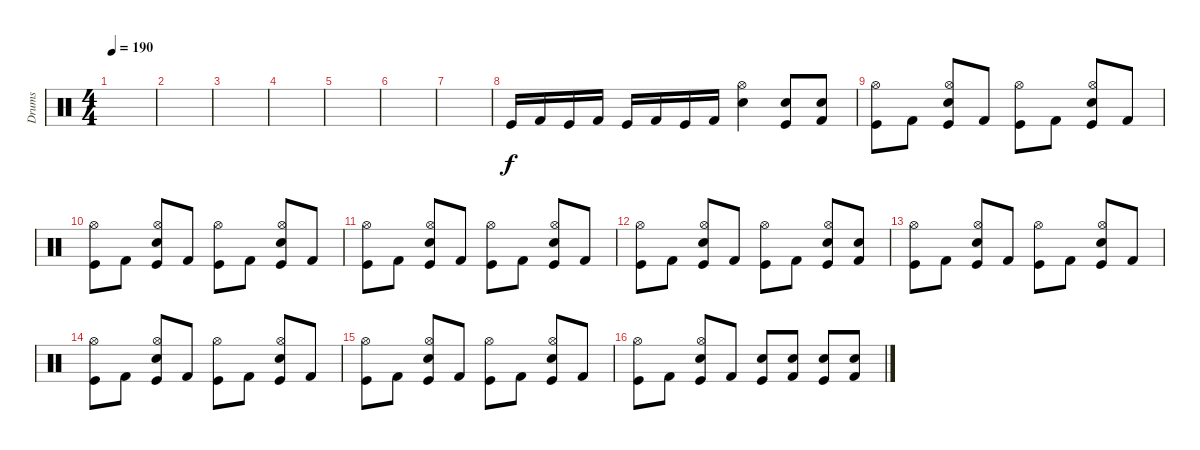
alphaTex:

\track ("Drums" "Drums") {instrument percussion}
\staff {score}
\articulation defaults
\ts (4 4)
\tempo 190
\clef neutral
\ks c
|
|
|
|
|
|
|
"Kick (hit)".16 "Kick (hit) 2".16 "Kick (hit)".16 "Kick (hit) 2".16 "Kick (hit)".16 "Kick (hit) 2".16 "Kick (hit)".16 "Kick (hit) 2".16 ("Hi-Hat (open)" "Snare (hit) 2").4 ("Snare (hit) 2" "Kick (hit)").8 ("Snare (hit) 2" "Kick (hit) 2").8 |
("Hi-Hat (open)" "Kick (hit)").8 "Kick (hit) 2".8 ("Hi-Hat (open)" "Snare (hit) 2" "Kick (hit)").8 "Kick (hit) 2".8 ("Hi-Hat (open)" "Kick (hit)").8 "Kick (hit) 2".8 ("Hi-Hat (open)" "Snare (hit) 2" "Kick (hit)").8 "Kick (hit) 2".8 |
("Hi-Hat (open)" "Kick (hit)").8 "Kick (hit) 2".8 ("Hi-Hat (open)" "Snare (hit) 2" "Kick (hit)").8 "Kick (hit) 2".8 ("Hi-Hat (open)" "Kick (hit)").8 "Kick (hit) 2".8 ("Hi-Hat (open)" "Snare (hit) 2" "Kick (hit)").8 "Kick (hit) 2".8 |
("Hi-Hat (open)" "Kick (hit)").8 "Kick (hit) 2".8 ("Hi-Hat (open)" "Snare (hit) 2" "Kick (hit)").8 "Kick (hit) 2".8 ("Hi-Hat (open)" "Kick (hit)").8 "Kick (hit) 2".8 ("Hi-Hat (open)" "Snare (hit) 2" "Kick (hit)").8 "Kick (hit) 2".8 |
("Hi-Hat (open)" "Kick (hit)").8 "Kick (hit) 2".8 ("Hi-Hat (open)" "Snare (hit) 2" "Kick (hit)").8 "Kick (hit) 2".8 ("Hi-Hat (open)" "Kick (hit)").8 "Kick (hit) 2".8 ("Hi-Hat (open)" "Snare (hit) 2" "Kick (hit)").8 ("Snare (hit) 2" "Kick (hit) 2").8 |
("Hi-Hat (open)" "Kick (hit)").8 "Kick (hit) 2".8 ("Hi-Hat (open)" "Snare (hit) 2" "Kick (hit)").8 "Kick (hit) 2".8 ("Hi-Hat (open)" "Kick (hit)").8 "Kick (hit) 2".8 ("Hi-Hat (open)" "Snare (hit) 2" "Kick (hit)").8 "Kick (hit) 2".8 |
("Hi-Hat (open)" "Kick (hit)").8 "Kick (hit) 2".8 ("Hi-Hat (open)" "Snare (hit) 2" "Kick (hit)").8 "Kick (hit) 2".8 ("Hi-Hat (open)" "Kick (hit)").8 "Kick (hit) 2".8 ("Hi-Hat (open)" "Snare (hit) 2" "Kick (hit)").8 "Kick (hit) 2".8 |
("Hi-Hat (open)" "Kick (hit)").8 "Kick (hit) 2".8 ("Hi-Hat (open)" "Snare (hit) 2" "Kick (hit)").8 "Kick (hit) 2".8 ("Hi-Hat (open)" "Kick (hit)").8 "Kick (hit) 2".8 ("Hi-Hat (open)" "Snare (hit) 2" "Kick (hit)").8 "Kick (hit) 2".8 |
("Hi-Hat (open)" "Kick (hit)").8 "Kick (hit) 2".8 ("Hi-Hat (open)" "Snare (hit) 2" "Kick (hit)").8 "Kick (hit) 2".8 ("Snare (hit) 2" "Kick (hit)").8 ("Snare (hit) 2" "Kick (hit) 2").8 ("Snare (hit) 2" "Kick (hit)").8 ("Snare (hit) 2" "Kick (hit) 2").8
